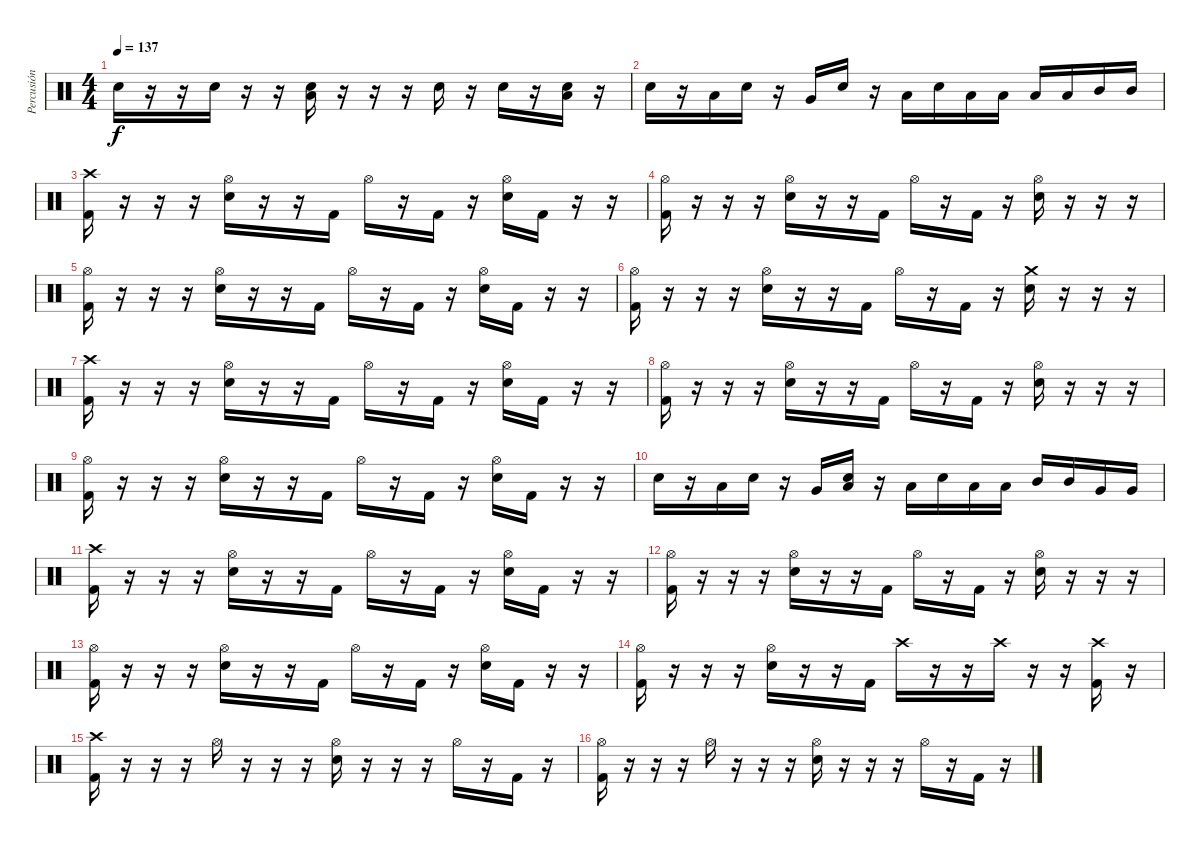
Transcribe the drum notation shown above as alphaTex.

\track ("Percusión" "Percusión") {instrument percussion}
\staff {score}
\articulation defaults
\ts (4 4)
\tempo 137
\clef neutral
\ks c "Electric Snare (hit)".16{dy f}
r.16 r.16 "Electric Snare (hit)".16 r.16 r.16 ("Electric Snare (hit)" "Low Tom (hit)").16 r.16 r.16 r.16 "Electric Snare (hit)".16 r.16 "Electric Snare (hit)".16 r.16 ("Electric Snare (hit)" "Low Tom (hit)").16 r.16 |
"Electric Snare (hit)".16 r.16 "Low Tom (hit)".16 "Electric Snare (hit)".16 r.16 "Very Low Tom (hit)".16 "Electric Snare (hit)".16 r.16 "Low Tom (hit)".16 "Electric Snare (hit)".16 "Low Floor Tom (hit)".16 "Low Floor Tom (hit)".16 "Low Tom (hit)".16 "Low Tom (hit)".16 "Mid Tom (hit)".16 "Mid Tom (hit)".16 |
("Crash high (hit)" "Kick (hit) 2").16 r.16 r.16 r.16 ("Hi-Hat (open)" "Electric Snare (hit)").16 r.16 r.16 "Kick (hit) 2".16 "Hi-Hat (open)".16 r.16 "Kick (hit) 2".16 r.16 ("Hi-Hat (open)" "Electric Snare (hit)").16 "Kick (hit) 2".16 r.16 r.16 |
("Hi-Hat (open)" "Kick (hit) 2").16 r.16 r.16 r.16 ("Hi-Hat (open)" "Electric Snare (hit)").16 r.16 r.16 "Kick (hit) 2".16 "Hi-Hat (open)".16 r.16 "Kick (hit) 2".16 r.16 ("Hi-Hat (open)" "Electric Snare (hit)").16 r.16 r.16 r.16 |
("Hi-Hat (open)" "Kick (hit) 2").16 r.16 r.16 r.16 ("Hi-Hat (open)" "Electric Snare (hit)").16 r.16 r.16 "Kick (hit) 2".16 "Hi-Hat (open)".16 r.16 "Kick (hit) 2".16 r.16 ("Hi-Hat (open)" "Electric Snare (hit)").16 "Kick (hit) 2".16 r.16 r.16 |
("Hi-Hat (open)" "Kick (hit) 2").16 r.16 r.16 r.16 ("Hi-Hat (open)" "Electric Snare (hit)").16 r.16 r.16 "Kick (hit) 2".16 "Hi-Hat (open)".16 r.16 "Kick (hit) 2".16 r.16 ("Crash medium (hit)" "Electric Snare (hit)").16 r.16 r.16 r.16 |
("Crash high (hit)" "Kick (hit) 2").16 r.16 r.16 r.16 ("Hi-Hat (open)" "Electric Snare (hit)").16 r.16 r.16 "Kick (hit) 2".16 "Hi-Hat (open)".16 r.16 "Kick (hit) 2".16 r.16 ("Hi-Hat (open)" "Electric Snare (hit)").16 "Kick (hit) 2".16 r.16 r.16 |
("Hi-Hat (open)" "Kick (hit) 2").16 r.16 r.16 r.16 ("Hi-Hat (open)" "Electric Snare (hit)").16 r.16 r.16 "Kick (hit) 2".16 "Hi-Hat (open)".16 r.16 "Kick (hit) 2".16 r.16 ("Hi-Hat (open)" "Electric Snare (hit)").16 r.16 r.16 r.16 |
("Hi-Hat (open)" "Kick (hit) 2").16 r.16 r.16 r.16 ("Hi-Hat (open)" "Electric Snare (hit)").16 r.16 r.16 "Kick (hit) 2".16 "Hi-Hat (open)".16 r.16 "Kick (hit) 2".16 r.16 ("Hi-Hat (open)" "Electric Snare (hit)").16 "Kick (hit) 2".16 r.16 r.16 |
"Electric Snare (hit)".16 r.16 "Low Tom (hit)".16 "Electric Snare (hit)".16 r.16 "Very Low Tom (hit)".16 ("Electric Snare (hit)" "Low Tom (hit)").16 r.16 "Low Tom (hit)".16 "Electric Snare (hit)".16 "Low Tom (hit)".16 "Low Tom (hit)".16 "Mid Tom (hit)".16 "Mid Tom (hit)".16 "Very Low Tom (hit)".16 "Very Low Tom (hit)".16 |
("Crash high (hit)" "Kick (hit) 2").16 r.16 r.16 r.16 ("Hi-Hat (open)" "Electric Snare (hit)").16 r.16 r.16 "Kick (hit) 2".16 "Hi-Hat (open)".16 r.16 "Kick (hit) 2".16 r.16 ("Hi-Hat (open)" "Electric Snare (hit)").16 "Kick (hit) 2".16 r.16 r.16 |
("Hi-Hat (open)" "Kick (hit) 2").16 r.16 r.16 r.16 ("Hi-Hat (open)" "Electric Snare (hit)").16 r.16 r.16 "Kick (hit) 2".16 "Hi-Hat (open)".16 r.16 "Kick (hit) 2".16 r.16 ("Hi-Hat (open)" "Electric Snare (hit)").16 r.16 r.16 r.16 |
("Hi-Hat (open)" "Kick (hit) 2").16 r.16 r.16 r.16 ("Hi-Hat (open)" "Electric Snare (hit)").16 r.16 r.16 "Kick (hit) 2".16 "Hi-Hat (open)".16 r.16 "Kick (hit) 2".16 r.16 ("Hi-Hat (open)" "Electric Snare (hit)").16 "Kick (hit) 2".16 r.16 r.16 |
("Hi-Hat (open)" "Kick (hit) 2").16 r.16 r.16 r.16 ("Hi-Hat (open)" "Electric Snare (hit)").16 r.16 r.16 "Kick (hit) 2".16 "Crash high (hit)".16 r.16 r.16 "Crash high (hit)".16 r.16 r.16 ("Crash high (hit)" "Kick (hit) 2").16 r.16 |
("Crash high (hit)" "Kick (hit) 2").16 r.16 r.16 r.16 "Hi-Hat (open)".16 r.16 r.16 r.16 ("Hi-Hat (open)" "Electric Snare (hit)").16 r.16 r.16 r.16 "Hi-Hat (open)".16 r.16 "Kick (hit) 2".16 r.16 |
("Hi-Hat (open)" "Kick (hit) 2").16 r.16 r.16 r.16 "Hi-Hat (open)".16 r.16 r.16 r.16 ("Hi-Hat (open)" "Electric Snare (hit)").16 r.16 r.16 r.16 "Hi-Hat (open)".16 r.16 "Kick (hit) 2".16 r.16
